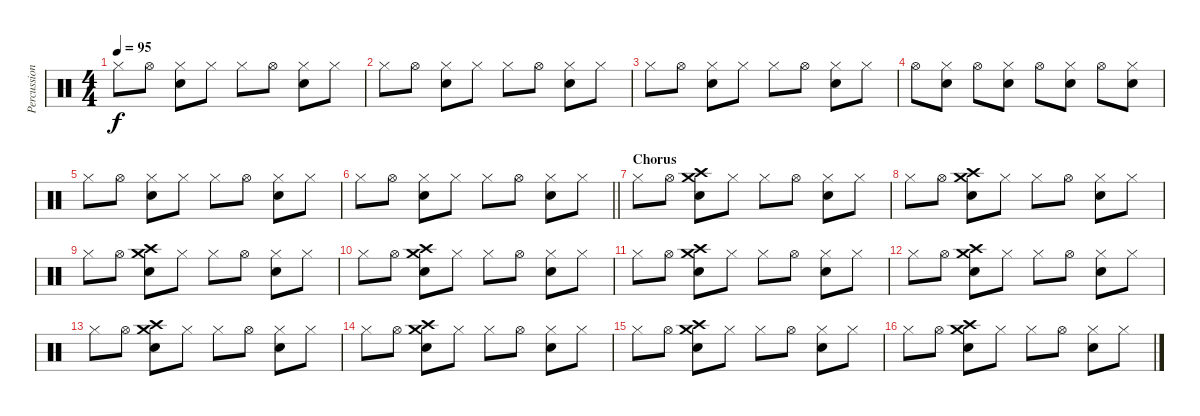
\track ("Percussion" "Percussion") {instrument percussion}
\staff {score}
\articulation defaults
\ts (4 4)
\tempo 95
\clef neutral
\ks c "Hi-Hat (closed)".8{dy f} "Hi-Hat (open)".8
("Hi-Hat (closed)" "Snare (hit) 2").8 "Hi-Hat (closed)".8 "Hi-Hat (closed)".8 "Hi-Hat (open)".8 ("Hi-Hat (closed)" "Snare (hit) 2").8 "Hi-Hat (closed)".8 |
"Hi-Hat (closed)".8 "Hi-Hat (open)".8 ("Hi-Hat (closed)" "Snare (hit) 2").8 "Hi-Hat (closed)".8 "Hi-Hat (closed)".8 "Hi-Hat (open)".8 ("Hi-Hat (closed)" "Snare (hit) 2").8 "Hi-Hat (closed)".8 |
"Hi-Hat (closed)".8 "Hi-Hat (open)".8 ("Hi-Hat (closed)" "Snare (hit) 2").8 "Hi-Hat (closed)".8 "Hi-Hat (closed)".8 "Hi-Hat (open)".8 ("Hi-Hat (closed)" "Snare (hit) 2").8 "Hi-Hat (closed)".8 |
"Hi-Hat (open)".8 ("Hi-Hat (closed)" "Snare (hit) 2").8 "Hi-Hat (open)".8 ("Hi-Hat (closed)" "Snare (hit) 2").8 "Hi-Hat (open)".8 ("Hi-Hat (closed)" "Snare (hit) 2").8 "Hi-Hat (open)".8 ("Hi-Hat (closed)" "Snare (hit) 2").8 |
"Hi-Hat (closed)".8 "Hi-Hat (open)".8 ("Hi-Hat (closed)" "Snare (hit) 2").8 "Hi-Hat (closed)".8 "Hi-Hat (closed)".8 "Hi-Hat (open)".8 ("Hi-Hat (closed)" "Snare (hit) 2").8 "Hi-Hat (closed)".8 |
\barLineRight lightlight "Hi-Hat (closed)".8 "Hi-Hat (open)".8
("Hi-Hat (closed)" "Snare (hit) 2").8 "Hi-Hat (closed)".8 "Hi-Hat (closed)".8 "Hi-Hat (open)".8 ("Hi-Hat (closed)" "Snare (hit) 2").8 "Hi-Hat (closed)".8 |
\section ("" "Chorus")
"Hi-Hat (closed)".8 "Hi-Hat (open)".8 ("Crash medium (hit)" "Snare (hit) 2" "Crash high (hit)").8 "Hi-Hat (closed)".8 "Hi-Hat (closed)".8 "Hi-Hat (open)".8 ("Hi-Hat (closed)" "Snare (hit) 2").8 "Hi-Hat (closed)".8 |
"Hi-Hat (closed)".8 "Hi-Hat (open)".8 ("Crash medium (hit)" "Snare (hit) 2" "Crash high (hit)").8 "Hi-Hat (closed)".8 "Hi-Hat (closed)".8 "Hi-Hat (open)".8 ("Hi-Hat (closed)" "Snare (hit) 2").8 "Hi-Hat (closed)".8 |
"Hi-Hat (closed)".8 "Hi-Hat (open)".8 ("Crash medium (hit)" "Snare (hit) 2" "Crash high (hit)").8 "Hi-Hat (closed)".8 "Hi-Hat (closed)".8 "Hi-Hat (open)".8 ("Hi-Hat (closed)" "Snare (hit) 2").8 "Hi-Hat (closed)".8 |
"Hi-Hat (closed)".8 "Hi-Hat (open)".8 ("Crash medium (hit)" "Snare (hit) 2" "Crash high (hit)").8 "Hi-Hat (closed)".8 "Hi-Hat (closed)".8 "Hi-Hat (open)".8 ("Hi-Hat (closed)" "Snare (hit) 2").8 "Hi-Hat (closed)".8 |
"Hi-Hat (closed)".8 "Hi-Hat (open)".8 ("Crash medium (hit)" "Snare (hit) 2" "Crash high (hit)").8 "Hi-Hat (closed)".8 "Hi-Hat (closed)".8 "Hi-Hat (open)".8 ("Hi-Hat (closed)" "Snare (hit) 2").8 "Hi-Hat (closed)".8 |
"Hi-Hat (closed)".8 "Hi-Hat (open)".8 ("Crash medium (hit)" "Snare (hit) 2" "Crash high (hit)").8 "Hi-Hat (closed)".8 "Hi-Hat (closed)".8 "Hi-Hat (open)".8 ("Hi-Hat (closed)" "Snare (hit) 2").8 "Hi-Hat (closed)".8 |
"Hi-Hat (closed)".8 "Hi-Hat (open)".8 ("Crash medium (hit)" "Snare (hit) 2" "Crash high (hit)").8 "Hi-Hat (closed)".8 "Hi-Hat (closed)".8 "Hi-Hat (open)".8 ("Hi-Hat (closed)" "Snare (hit) 2").8 "Hi-Hat (closed)".8 |
"Hi-Hat (closed)".8 "Hi-Hat (open)".8 ("Crash medium (hit)" "Snare (hit) 2" "Crash high (hit)").8 "Hi-Hat (closed)".8 "Hi-Hat (closed)".8 "Hi-Hat (open)".8 ("Hi-Hat (closed)" "Snare (hit) 2").8 "Hi-Hat (closed)".8 |
"Hi-Hat (closed)".8 "Hi-Hat (open)".8 ("Crash medium (hit)" "Snare (hit) 2" "Crash high (hit)").8 "Hi-Hat (closed)".8 "Hi-Hat (closed)".8 "Hi-Hat (open)".8 ("Hi-Hat (closed)" "Snare (hit) 2").8 "Hi-Hat (closed)".8 |
"Hi-Hat (closed)".8 "Hi-Hat (open)".8 ("Crash medium (hit)" "Snare (hit) 2" "Crash high (hit)").8 "Hi-Hat (closed)".8 "Hi-Hat (closed)".8 "Hi-Hat (open)".8 ("Hi-Hat (closed)" "Snare (hit) 2").8 "Hi-Hat (closed)".8
